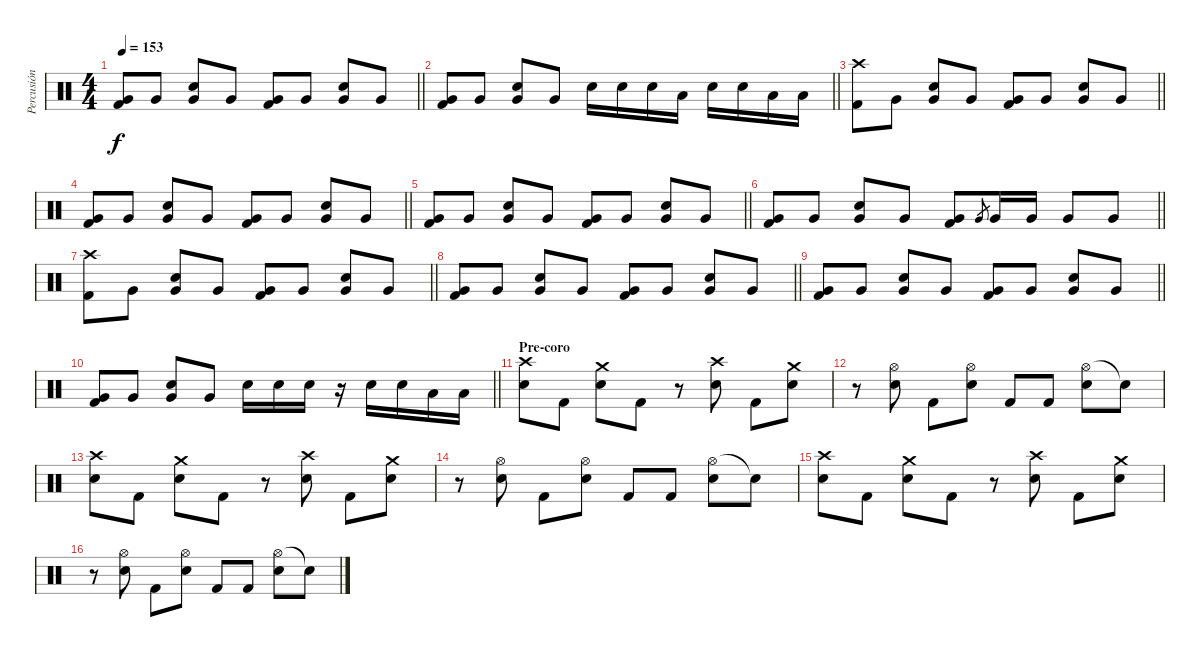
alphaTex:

\track ("Percusión" "Percusión") {instrument percussion}
\staff {score}
\articulation defaults
\ts (4 4)
\tempo 153
\clef neutral
\barLineRight lightlight
\ks c
("Very Low Tom (hit)" "Kick (hit) 2").8{dy f} "Very Low Tom (hit)".8 ("Very Low Tom (hit)" "Snare (hit) 2").8 "Very Low Tom (hit)".8 ("Very Low Tom (hit)" "Kick (hit) 2").8 "Very Low Tom (hit)".8 ("Very Low Tom (hit)" "Snare (hit) 2").8 "Very Low Tom (hit)".8 |
\barLineRight lightlight
("Very Low Tom (hit)" "Kick (hit) 2").8 "Very Low Tom (hit)".8 ("Very Low Tom (hit)" "Snare (hit) 2").8 "Very Low Tom (hit)".8 "Snare (hit) 2".16 "Snare (hit) 2".16 "Snare (hit) 2".16 "Low Tom (hit)".16 "Snare (hit) 2".16 "Snare (hit) 2".16 "Low Tom (hit)".16 "Low Tom (hit)".16 |
\barLineRight lightlight
("Crash high (hit)" "Kick (hit) 2").8 "Very Low Tom (hit)".8 ("Very Low Tom (hit)" "Snare (hit) 2").8 "Very Low Tom (hit)".8 ("Very Low Tom (hit)" "Kick (hit) 2").8 "Very Low Tom (hit)".8 ("Very Low Tom (hit)" "Snare (hit) 2").8 "Very Low Tom (hit)".8 |
\barLineRight lightlight
("Very Low Tom (hit)" "Kick (hit) 2").8 "Very Low Tom (hit)".8 ("Very Low Tom (hit)" "Snare (hit) 2").8 "Very Low Tom (hit)".8 ("Very Low Tom (hit)" "Kick (hit) 2").8 "Very Low Tom (hit)".8 ("Very Low Tom (hit)" "Snare (hit) 2").8 "Very Low Tom (hit)".8 |
\barLineRight lightlight
("Very Low Tom (hit)" "Kick (hit) 2").8 "Very Low Tom (hit)".8 ("Very Low Tom (hit)" "Snare (hit) 2").8 "Very Low Tom (hit)".8 ("Very Low Tom (hit)" "Kick (hit) 2").8 "Very Low Tom (hit)".8 ("Very Low Tom (hit)" "Snare (hit) 2").8 "Very Low Tom (hit)".8 |
\barLineRight lightlight
("Very Low Tom (hit)" "Kick (hit) 2").8 "Very Low Tom (hit)".8 ("Very Low Tom (hit)" "Snare (hit) 2").8 "Very Low Tom (hit)".8 ("Very Low Tom (hit)" "Kick (hit) 2").8 "Very Low Tom (hit)".8{gr} "Very Low Tom (hit)".16 "Very Low Tom (hit)".16 "Very Low Tom (hit)".8 "Very Low Tom (hit)".8 |
\barLineRight lightlight
("Crash high (hit)" "Kick (hit) 2").8 "Very Low Tom (hit)".8 ("Very Low Tom (hit)" "Snare (hit) 2").8 "Very Low Tom (hit)".8 ("Very Low Tom (hit)" "Kick (hit) 2").8 "Very Low Tom (hit)".8 ("Very Low Tom (hit)" "Snare (hit) 2").8 "Very Low Tom (hit)".8 |
\barLineRight lightlight
("Very Low Tom (hit)" "Kick (hit) 2").8 "Very Low Tom (hit)".8 ("Very Low Tom (hit)" "Snare (hit) 2").8 "Very Low Tom (hit)".8 ("Very Low Tom (hit)" "Kick (hit) 2").8 "Very Low Tom (hit)".8 ("Very Low Tom (hit)" "Snare (hit) 2").8 "Very Low Tom (hit)".8 |
\barLineRight lightlight
("Very Low Tom (hit)" "Kick (hit) 2").8 "Very Low Tom (hit)".8 ("Very Low Tom (hit)" "Snare (hit) 2").8 "Very Low Tom (hit)".8 ("Very Low Tom (hit)" "Kick (hit) 2").8 "Very Low Tom (hit)".8 ("Very Low Tom (hit)" "Snare (hit) 2").8 "Very Low Tom (hit)".8 |
\barLineRight lightlight
("Very Low Tom (hit)" "Kick (hit) 2").8 "Very Low Tom (hit)".8 ("Very Low Tom (hit)" "Snare (hit) 2").8 "Very Low Tom (hit)".8 "Snare (hit) 2".16 "Snare (hit) 2".16 "Snare (hit) 2".16 r.16 "Snare (hit) 2".16 "Snare (hit) 2".16 "Low Tom (hit)".16 "Low Tom (hit)".16 |
\section ("" "Pre-coro")
("Crash high (hit)" "Snare (hit) 2").8 "Kick (hit) 2".8 ("Crash medium (hit)" "Snare (hit) 2").8 "Kick (hit) 2".8 r.8 ("Crash high (hit)" "Snare (hit) 2").8 "Kick (hit) 2".8 ("Crash medium (hit)" "Snare (hit) 2").8 |
r.8 ("Hi-Hat (open)" "Snare (hit) 2").8 "Kick (hit) 2".8 ("Hi-Hat (open)" "Snare (hit) 2").8 "Kick (hit) 2".8 "Kick (hit) 2".8 ("Hi-Hat (open)" "Snare (hit) 2").8 "Snare (hit)"{t}.8 |
("Crash high (hit)" "Snare (hit) 2").8 "Kick (hit) 2".8 ("Crash medium (hit)" "Snare (hit) 2").8 "Kick (hit) 2".8 r.8 ("Crash high (hit)" "Snare (hit) 2").8 "Kick (hit) 2".8 ("Crash medium (hit)" "Snare (hit) 2").8 |
r.8 ("Hi-Hat (open)" "Snare (hit) 2").8 "Kick (hit) 2".8 ("Hi-Hat (open)" "Snare (hit) 2").8 "Kick (hit) 2".8 "Kick (hit) 2".8 ("Hi-Hat (open)" "Snare (hit) 2").8 "Snare (hit)"{t}.8 |
("Crash high (hit)" "Snare (hit) 2").8 "Kick (hit) 2".8 ("Crash medium (hit)" "Snare (hit) 2").8 "Kick (hit) 2".8 r.8 ("Crash high (hit)" "Snare (hit) 2").8 "Kick (hit) 2".8 ("Crash medium (hit)" "Snare (hit) 2").8 |
r.8 ("Hi-Hat (open)" "Snare (hit) 2").8 "Kick (hit) 2".8 ("Hi-Hat (open)" "Snare (hit) 2").8 "Kick (hit) 2".8 "Kick (hit) 2".8 ("Hi-Hat (open)" "Snare (hit) 2").8 "Snare (hit)"{t}.8
